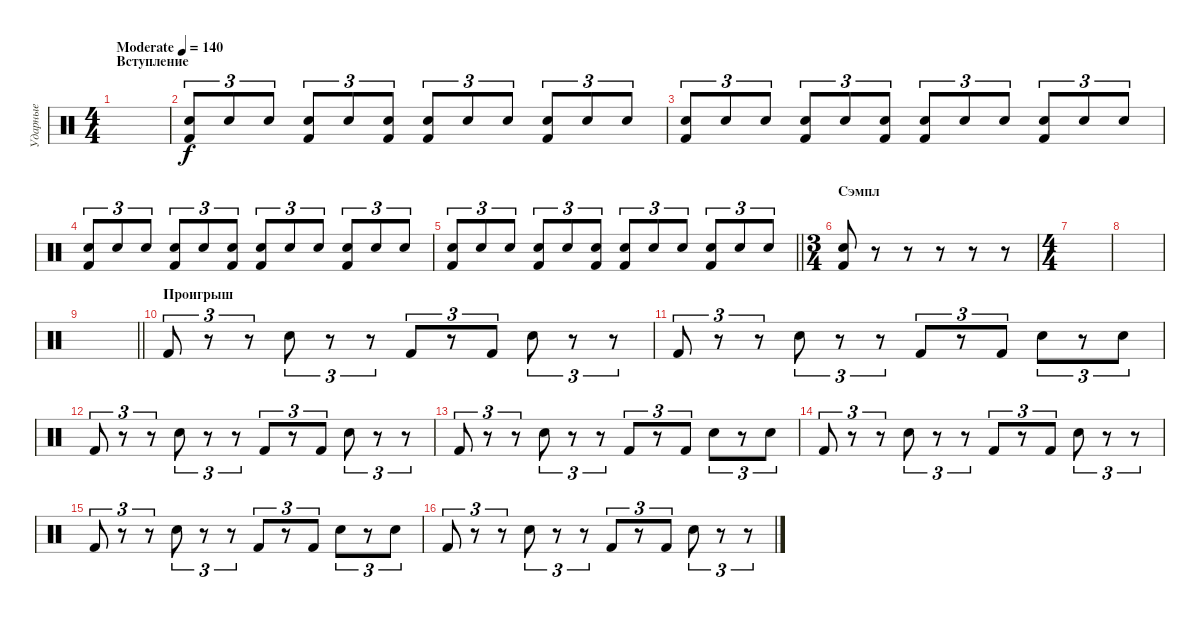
\track ("Ударные" "Ударные") {instrument percussion}
\staff {score}
\articulation defaults
\ts (4 4)
\section ("" "Вступление")
\tempo (140 "Moderate")
\clef neutral
\ks c
|
("Electric Snare (hit)" "Kick (hit) 2").8{tu (3 2)} "Electric Snare (hit)".8{tu (3 2)} "Electric Snare (hit)".8{tu (3 2)} ("Electric Snare (hit)" "Kick (hit) 2").8{tu (3 2)} "Electric Snare (hit)".8{tu (3 2)} ("Electric Snare (hit)" "Kick (hit) 2").8{tu (3 2)} ("Electric Snare (hit)" "Kick (hit) 2").8{tu (3 2)} "Electric Snare (hit)".8{tu (3 2)} "Electric Snare (hit)".8{tu (3 2)} ("Electric Snare (hit)" "Kick (hit) 2").8{tu (3 2)} "Electric Snare (hit)".8{tu (3 2)} "Electric Snare (hit)".8{tu (3 2)} |
("Electric Snare (hit)" "Kick (hit) 2").8{tu (3 2)} "Electric Snare (hit)".8{tu (3 2)} "Electric Snare (hit)".8{tu (3 2)} ("Electric Snare (hit)" "Kick (hit) 2").8{tu (3 2)} "Electric Snare (hit)".8{tu (3 2)} ("Electric Snare (hit)" "Kick (hit) 2").8{tu (3 2)} ("Electric Snare (hit)" "Kick (hit) 2").8{tu (3 2)} "Electric Snare (hit)".8{tu (3 2)} "Electric Snare (hit)".8{tu (3 2)} ("Electric Snare (hit)" "Kick (hit) 2").8{tu (3 2)} "Electric Snare (hit)".8{tu (3 2)} "Electric Snare (hit)".8{tu (3 2)} |
("Electric Snare (hit)" "Kick (hit) 2").8{tu (3 2)} "Electric Snare (hit)".8{tu (3 2)} "Electric Snare (hit)".8{tu (3 2)} ("Electric Snare (hit)" "Kick (hit) 2").8{tu (3 2)} "Electric Snare (hit)".8{tu (3 2)} ("Electric Snare (hit)" "Kick (hit) 2").8{tu (3 2)} ("Electric Snare (hit)" "Kick (hit) 2").8{tu (3 2)} "Electric Snare (hit)".8{tu (3 2)} "Electric Snare (hit)".8{tu (3 2)} ("Electric Snare (hit)" "Kick (hit) 2").8{tu (3 2)} "Electric Snare (hit)".8{tu (3 2)} "Electric Snare (hit)".8{tu (3 2)} |
\barLineRight lightlight
("Electric Snare (hit)" "Kick (hit) 2").8{tu (3 2)} "Electric Snare (hit)".8{tu (3 2)} "Electric Snare (hit)".8{tu (3 2)} ("Electric Snare (hit)" "Kick (hit) 2").8{tu (3 2)} "Electric Snare (hit)".8{tu (3 2)} ("Electric Snare (hit)" "Kick (hit) 2").8{tu (3 2)} ("Electric Snare (hit)" "Kick (hit) 2").8{tu (3 2)} "Electric Snare (hit)".8{tu (3 2)} "Electric Snare (hit)".8{tu (3 2)} ("Electric Snare (hit)" "Kick (hit) 2").8{tu (3 2)} "Electric Snare (hit)".8{tu (3 2)} "Electric Snare (hit)".8{tu (3 2)} |
\ts (3 4)
\section ("" "Сэмпл")
("Electric Snare (hit)" "Kick (hit) 2").8 r.8 r.8 r.8 r.8 r.8 |
\ts (4 4)
|
|
\barLineRight lightlight
|
\section ("" "Проигрыш")
"Kick (hit) 2".8{tu (3 2)} r.8{tu (3 2)} r.8{tu (3 2)} "Electric Snare (hit)".8{tu (3 2)} r.8{tu (3 2)} r.8{tu (3 2)} "Kick (hit) 2".8{tu (3 2)} r.8{tu (3 2)} "Kick (hit) 2".8{tu (3 2)} "Electric Snare (hit)".8{tu (3 2)} r.8{tu (3 2)} r.8{tu (3 2)} |
"Kick (hit) 2".8{tu (3 2)} r.8{tu (3 2)} r.8{tu (3 2)} "Electric Snare (hit)".8{tu (3 2)} r.8{tu (3 2)} r.8{tu (3 2)} "Kick (hit) 2".8{tu (3 2)} r.8{tu (3 2)} "Kick (hit) 2".8{tu (3 2)} "Electric Snare (hit)".8{tu (3 2)} r.8{tu (3 2)} "Electric Snare (hit)".8{tu (3 2)} |
"Kick (hit) 2".8{tu (3 2)} r.8{tu (3 2)} r.8{tu (3 2)} "Electric Snare (hit)".8{tu (3 2)} r.8{tu (3 2)} r.8{tu (3 2)} "Kick (hit) 2".8{tu (3 2)} r.8{tu (3 2)} "Kick (hit) 2".8{tu (3 2)} "Electric Snare (hit)".8{tu (3 2)} r.8{tu (3 2)} r.8{tu (3 2)} |
"Kick (hit) 2".8{tu (3 2)} r.8{tu (3 2)} r.8{tu (3 2)} "Electric Snare (hit)".8{tu (3 2)} r.8{tu (3 2)} r.8{tu (3 2)} "Kick (hit) 2".8{tu (3 2)} r.8{tu (3 2)} "Kick (hit) 2".8{tu (3 2)} "Electric Snare (hit)".8{tu (3 2)} r.8{tu (3 2)} "Electric Snare (hit)".8{tu (3 2)} |
"Kick (hit) 2".8{tu (3 2)} r.8{tu (3 2)} r.8{tu (3 2)} "Electric Snare (hit)".8{tu (3 2)} r.8{tu (3 2)} r.8{tu (3 2)} "Kick (hit) 2".8{tu (3 2)} r.8{tu (3 2)} "Kick (hit) 2".8{tu (3 2)} "Electric Snare (hit)".8{tu (3 2)} r.8{tu (3 2)} r.8{tu (3 2)} |
"Kick (hit) 2".8{tu (3 2)} r.8{tu (3 2)} r.8{tu (3 2)} "Electric Snare (hit)".8{tu (3 2)} r.8{tu (3 2)} r.8{tu (3 2)} "Kick (hit) 2".8{tu (3 2)} r.8{tu (3 2)} "Kick (hit) 2".8{tu (3 2)} "Electric Snare (hit)".8{tu (3 2)} r.8{tu (3 2)} "Electric Snare (hit)".8{tu (3 2)} |
"Kick (hit) 2".8{tu (3 2)} r.8{tu (3 2)} r.8{tu (3 2)} "Electric Snare (hit)".8{tu (3 2)} r.8{tu (3 2)} r.8{tu (3 2)} "Kick (hit) 2".8{tu (3 2)} r.8{tu (3 2)} "Kick (hit) 2".8{tu (3 2)} "Electric Snare (hit)".8{tu (3 2)} r.8{tu (3 2)} r.8{tu (3 2)}
